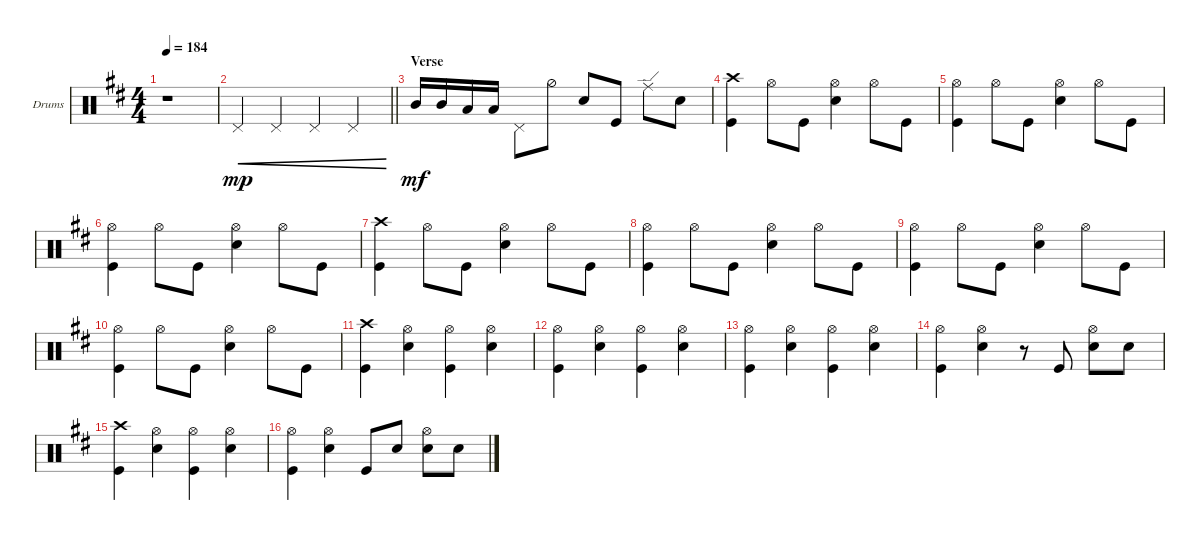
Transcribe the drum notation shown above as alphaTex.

\defaultSystemsLayout 4
\bracketExtendMode groupsimilarinstruments
\firstSystemTrackNameOrientation horizontal
\otherSystemsTrackNameOrientation horizontal
\track ("Drums" "Drums") {instrument percussion}
\staff {score}
\articulation defaults
\ts (4 4)
\tempo 184
\clef neutral
\ks d
r.1{dy f} |
\barLineRight lightlight "Pedal Hi-Hat (hit)".4{cre dy mp} "Pedal Hi-Hat (hit)".4{cre} "Pedal Hi-Hat (hit)".4{cre} "Pedal Hi-Hat (hit)".4{cre}
|
\section ("" "Verse")
"Mid Tom (hit)".16{dy mf} "Mid Tom (hit)".16 "Low Tom (hit)".16 "Low Tom (hit)".16 "Pedal Hi-Hat (hit)".8 "Hi-Hat (half)".8 "Snare (hit) 2".8 "Kick (hit)".8 "Ride (edge)".8 "Snare (hit) 2".8 |
("Kick (hit)" "Crash high (hit)").4 "Hi-Hat (open)".8 "Kick (hit)".8 ("Snare (hit) 2" "Hi-Hat (open)").4 "Hi-Hat (open)".8 "Kick (hit)".8 |
("Kick (hit)" "Hi-Hat (open)").4 "Hi-Hat (open)".8 "Kick (hit)".8 ("Snare (hit) 2" "Hi-Hat (open)").4 "Hi-Hat (open)".8 "Kick (hit)".8 |
("Kick (hit)" "Hi-Hat (open)").4 "Hi-Hat (open)".8 "Kick (hit)".8 ("Snare (hit) 2" "Hi-Hat (open)").4 "Hi-Hat (open)".8 "Kick (hit)".8 |
("Kick (hit)" "Crash high (hit)").4 "Hi-Hat (open)".8 "Kick (hit)".8 ("Snare (hit) 2" "Hi-Hat (open)").4 "Hi-Hat (open)".8 "Kick (hit)".8 |
("Kick (hit)" "Hi-Hat (open)").4 "Hi-Hat (open)".8 "Kick (hit)".8 ("Snare (hit) 2" "Hi-Hat (open)").4 "Hi-Hat (open)".8 "Kick (hit)".8 |
("Kick (hit)" "Hi-Hat (open)").4 "Hi-Hat (open)".8 "Kick (hit)".8 ("Snare (hit) 2" "Hi-Hat (open)").4 "Hi-Hat (open)".8 "Kick (hit)".8 |
("Kick (hit)" "Hi-Hat (open)").4 "Hi-Hat (open)".8 "Kick (hit)".8 ("Snare (hit) 2" "Hi-Hat (open)").4 "Hi-Hat (open)".8 "Kick (hit)".8 |
("Kick (hit)" "Crash high (hit)").4 ("Hi-Hat (open)" "Snare (hit) 2").4 ("Kick (hit)" "Hi-Hat (open)").4 ("Hi-Hat (open)" "Snare (hit) 2").4 |
("Kick (hit)" "Hi-Hat (open)").4 ("Hi-Hat (open)" "Snare (hit) 2").4 ("Kick (hit)" "Hi-Hat (open)").4 ("Hi-Hat (open)" "Snare (hit) 2").4 |
("Kick (hit)" "Hi-Hat (open)").4 ("Hi-Hat (open)" "Snare (hit) 2").4 ("Kick (hit)" "Hi-Hat (open)").4 ("Hi-Hat (open)" "Snare (hit) 2").4 |
("Kick (hit)" "Hi-Hat (open)").4 ("Hi-Hat (open)" "Snare (hit) 2").4 r.8 "Kick (hit)".8 ("Snare (hit) 2" "Hi-Hat (open)").8 "Snare (hit) 2".8 |
("Kick (hit)" "Crash high (hit)").4 ("Hi-Hat (open)" "Snare (hit) 2").4 ("Kick (hit)" "Hi-Hat (open)").4 ("Hi-Hat (open)" "Snare (hit) 2").4 |
("Kick (hit)" "Hi-Hat (open)").4 ("Hi-Hat (open)" "Snare (hit) 2").4 "Kick (hit)".8 "Snare (hit) 2".8 ("Snare (hit) 2" "Hi-Hat (open)").8 "Snare (hit) 2".8
